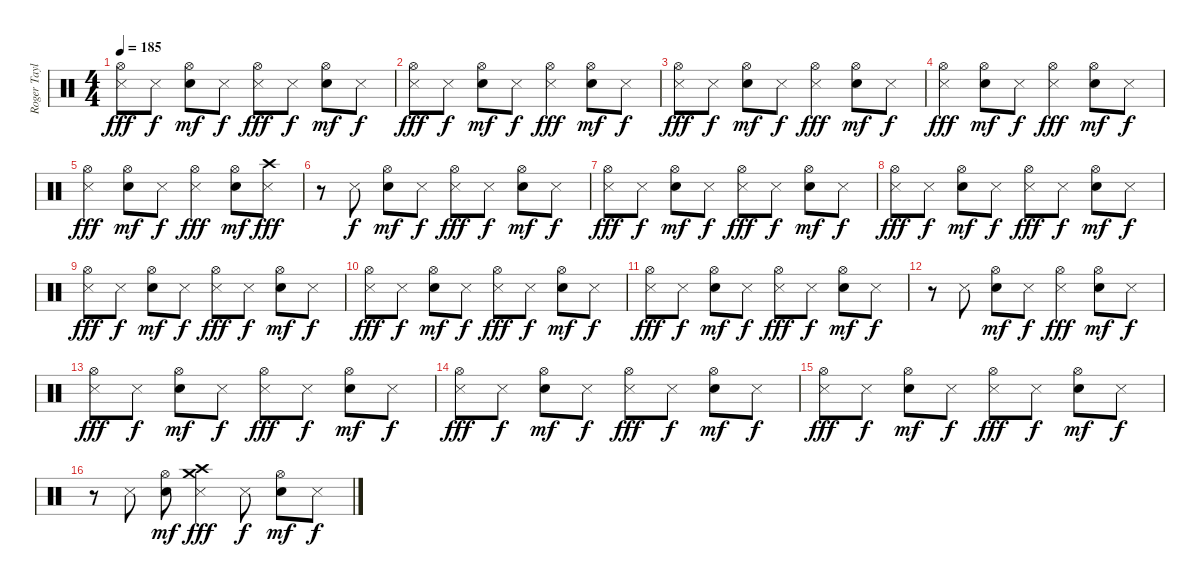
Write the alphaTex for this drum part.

\track ("Roger Taylor" "Roger Tayl") {instrument percussion}
\staff {score}
\articulation defaults
\ts (4 4)
\tempo 185
\clef neutral
\ks c
("Metronome (hit)" "Hi-Hat (open)").8{dy fff} "Metronome (hit)".8{dy f} ("Snare (hit) 2" "Hi-Hat (open)").8{dy mf} "Metronome (hit)".8{dy f} ("Metronome (hit)" "Hi-Hat (open)").8{dy fff} "Metronome (hit)".8{dy f} ("Snare (hit) 2" "Hi-Hat (open)").8{dy mf} "Metronome (hit)".8{dy f} |
("Metronome (hit)" "Hi-Hat (open)").8{dy fff} "Metronome (hit)".8{dy f} ("Snare (hit) 2" "Hi-Hat (open)").8{dy mf} "Metronome (hit)".8{dy f} ("Metronome (hit)" "Hi-Hat (open)").4{dy fff} ("Snare (hit) 2" "Hi-Hat (open)").8{dy mf} "Metronome (hit)".8{dy f} |
("Metronome (hit)" "Hi-Hat (open)").8{dy fff} "Metronome (hit)".8{dy f} ("Snare (hit) 2" "Hi-Hat (open)").8{dy mf} "Metronome (hit)".8{dy f} ("Metronome (hit)" "Hi-Hat (open)").4{dy fff} ("Snare (hit) 2" "Hi-Hat (open)").8{dy mf} "Metronome (hit)".8{dy f} |
("Metronome (hit)" "Hi-Hat (open)").4{dy fff} ("Snare (hit) 2" "Hi-Hat (open)").8{dy mf} "Metronome (hit)".8{dy f} ("Metronome (hit)" "Hi-Hat (open)").4{dy fff} ("Snare (hit) 2" "Hi-Hat (open)").8{dy mf} "Metronome (hit)".8{dy f} |
("Metronome (hit)" "Hi-Hat (open)").4{dy fff} ("Snare (hit) 2" "Hi-Hat (open)").8{dy mf} "Metronome (hit)".8{dy f} ("Metronome (hit)" "Hi-Hat (open)").4{dy fff} ("Snare (hit) 2" "Hi-Hat (open)").8{dy mf} ("Crash high (hit)" "Metronome (hit)").8{dy fff} |
r.8 "Metronome (hit)".8{dy f} ("Snare (hit) 2" "Hi-Hat (open)").8{dy mf} "Metronome (hit)".8{dy f} ("Metronome (hit)" "Hi-Hat (open)").8{dy fff} "Metronome (hit)".8{dy f} ("Snare (hit) 2" "Hi-Hat (open)").8{dy mf} "Metronome (hit)".8{dy f} |
("Metronome (hit)" "Hi-Hat (open)").8{dy fff} "Metronome (hit)".8{dy f} ("Snare (hit) 2" "Hi-Hat (open)").8{dy mf} "Metronome (hit)".8{dy f} ("Metronome (hit)" "Hi-Hat (open)").8{dy fff} "Metronome (hit)".8{dy f} ("Snare (hit) 2" "Hi-Hat (open)").8{dy mf} "Metronome (hit)".8{dy f} |
("Metronome (hit)" "Hi-Hat (open)").8{dy fff} "Metronome (hit)".8{dy f} ("Snare (hit) 2" "Hi-Hat (open)").8{dy mf} "Metronome (hit)".8{dy f} ("Metronome (hit)" "Hi-Hat (open)").8{dy fff} "Metronome (hit)".8{dy f} ("Snare (hit) 2" "Hi-Hat (open)").8{dy mf} "Metronome (hit)".8{dy f} |
("Metronome (hit)" "Hi-Hat (open)").8{dy fff} "Metronome (hit)".8{dy f} ("Snare (hit) 2" "Hi-Hat (open)").8{dy mf} "Metronome (hit)".8{dy f} ("Metronome (hit)" "Hi-Hat (open)").8{dy fff} "Metronome (hit)".8{dy f} ("Snare (hit) 2" "Hi-Hat (open)").8{dy mf} "Metronome (hit)".8{dy f} |
("Metronome (hit)" "Hi-Hat (open)").8{dy fff} "Metronome (hit)".8{dy f} ("Snare (hit) 2" "Hi-Hat (open)").8{dy mf} "Metronome (hit)".8{dy f} ("Metronome (hit)" "Hi-Hat (open)").8{dy fff} "Metronome (hit)".8{dy f} ("Snare (hit) 2" "Hi-Hat (open)").8{dy mf} "Metronome (hit)".8{dy f} |
("Metronome (hit)" "Hi-Hat (open)").8{dy fff} "Metronome (hit)".8{dy f} ("Snare (hit) 2" "Hi-Hat (open)").8{dy mf} "Metronome (hit)".8{dy f} ("Metronome (hit)" "Hi-Hat (open)").8{dy fff} "Metronome (hit)".8{dy f} ("Snare (hit) 2" "Hi-Hat (open)").8{dy mf} "Metronome (hit)".8{dy f} |
r.8 "Metronome (hit)".8 ("Snare (hit) 2" "Hi-Hat (open)").8{dy mf} "Metronome (hit)".8{dy f} ("Hi-Hat (open)" "Metronome (hit)").4{dy fff} ("Snare (hit) 2" "Hi-Hat (open)").8{dy mf} "Metronome (hit)".8{dy f} |
("Metronome (hit)" "Hi-Hat (open)").8{dy fff} "Metronome (hit)".8{dy f} ("Snare (hit) 2" "Hi-Hat (open)").8{dy mf} "Metronome (hit)".8{dy f} ("Metronome (hit)" "Hi-Hat (open)").8{dy fff} "Metronome (hit)".8{dy f} ("Snare (hit) 2" "Hi-Hat (open)").8{dy mf} "Metronome (hit)".8{dy f} |
("Metronome (hit)" "Hi-Hat (open)").8{dy fff} "Metronome (hit)".8{dy f} ("Snare (hit) 2" "Hi-Hat (open)").8{dy mf} "Metronome (hit)".8{dy f} ("Metronome (hit)" "Hi-Hat (open)").8{dy fff} "Metronome (hit)".8{dy f} ("Snare (hit) 2" "Hi-Hat (open)").8{dy mf} "Metronome (hit)".8{dy f} |
("Metronome (hit)" "Hi-Hat (open)").8{dy fff} "Metronome (hit)".8{dy f} ("Snare (hit) 2" "Hi-Hat (open)").8{dy mf} "Metronome (hit)".8{dy f} ("Metronome (hit)" "Hi-Hat (open)").8{dy fff} "Metronome (hit)".8{dy f} ("Snare (hit) 2" "Hi-Hat (open)").8{dy mf} "Metronome (hit)".8{dy f} |
r.8 "Metronome (hit)".8 ("Snare (hit) 2" "Hi-Hat (open)").8{dy mf} ("Crash medium (hit)" "Metronome (hit)" "Crash high (hit)").4{dy fff} "Metronome (hit)".8{dy f} ("Snare (hit) 2" "Hi-Hat (open)").8{dy mf} "Metronome (hit)".8{dy f}
